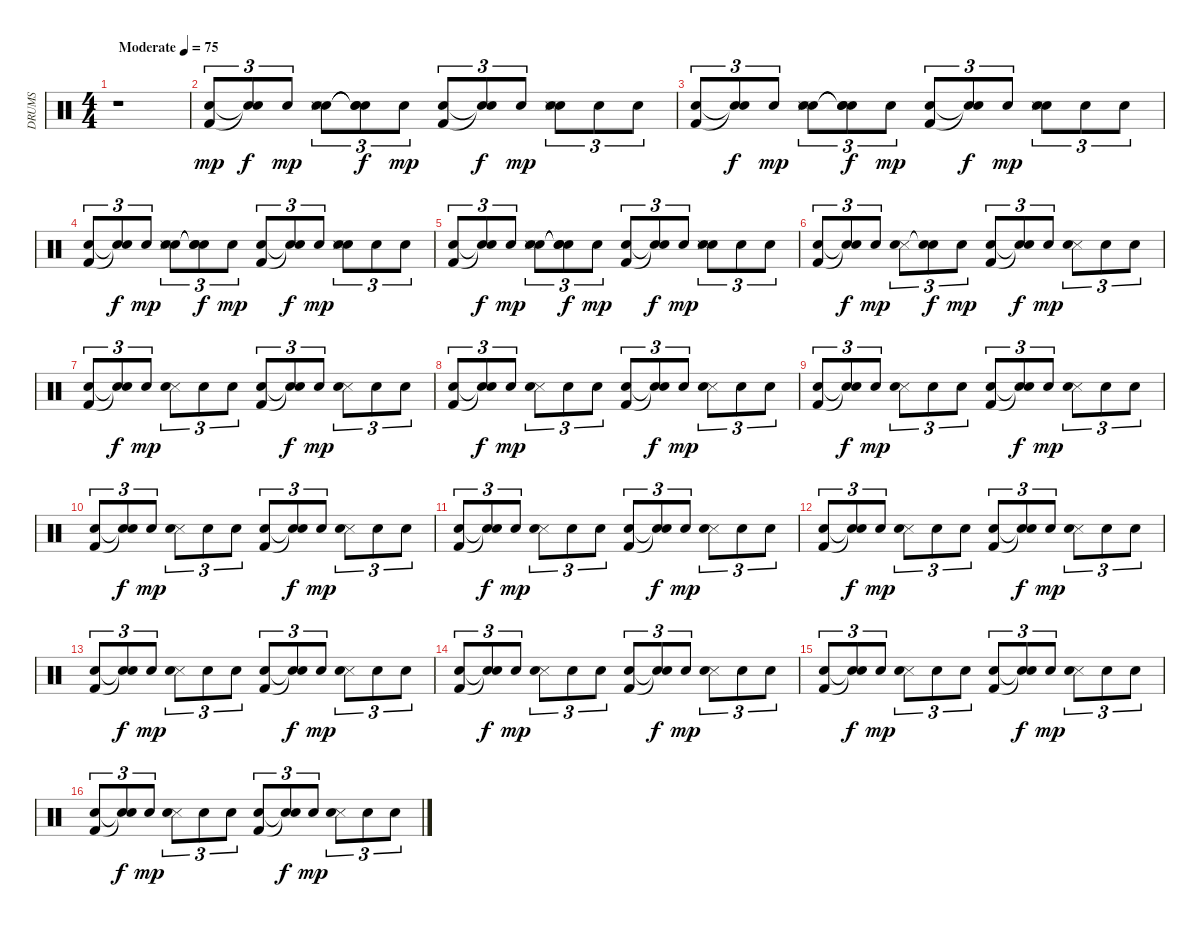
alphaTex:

\track ("DRUMS" "DRUMS") {instrument percussion}
\staff {score}
\articulation defaults
\ts (4 4)
\tempo (75 "Moderate")
\clef neutral
\ks c
r.1{dy mp} |
("Snare (hit) 2" "Kick (hit) 2").8{tu (3 2)} ("Snare (hit)"{t} "Snare (hit)"{t}).8{tu (3 2) dy f} "Snare (hit) 2".8{tu (3 2) dy mp} ("Snare (hit) 2" "Snare (side stick) 3" "Hand Clap (hit)").8{tu (3 2)} ("Snare (hit)"{t} "Snare (hit)"{t} "Snare (hit)"{t}).8{tu (3 2) dy f} "Snare (hit) 2".8{tu (3 2) dy mp} ("Snare (hit) 2" "Kick (hit) 2").8{tu (3 2)} ("Snare (hit)"{t} "Snare (hit)"{t}).8{tu (3 2) dy f} "Snare (hit) 2".8{tu (3 2) dy mp} ("Snare (hit) 2" "Snare (side stick) 3" "Hand Clap (hit)").8{tu (3 2)} "Snare (hit) 2".8{tu (3 2)} "Snare (hit) 2".8{tu (3 2)} |
("Snare (hit) 2" "Kick (hit) 2").8{tu (3 2)} ("Snare (hit)"{t} "Snare (hit)"{t}).8{tu (3 2) dy f} "Snare (hit) 2".8{tu (3 2) dy mp} ("Snare (hit) 2" "Snare (side stick) 3" "Hand Clap (hit)").8{tu (3 2)} ("Snare (hit)"{t} "Snare (hit)"{t} "Snare (hit)"{t}).8{tu (3 2) dy f} "Snare (hit) 2".8{tu (3 2) dy mp} ("Snare (hit) 2" "Kick (hit) 2").8{tu (3 2)} ("Snare (hit)"{t} "Snare (hit)"{t}).8{tu (3 2) dy f} "Snare (hit) 2".8{tu (3 2) dy mp} ("Snare (hit) 2" "Snare (side stick) 3" "Hand Clap (hit)").8{tu (3 2)} "Snare (hit) 2".8{tu (3 2)} "Snare (hit) 2".8{tu (3 2)} |
("Snare (hit) 2" "Kick (hit) 2").8{tu (3 2)} ("Snare (hit)"{t} "Snare (hit)"{t}).8{tu (3 2) dy f} "Snare (hit) 2".8{tu (3 2) dy mp} ("Snare (hit) 2" "Snare (side stick) 3" "Hand Clap (hit)").8{tu (3 2)} ("Snare (hit)"{t} "Snare (hit)"{t} "Snare (hit)"{t}).8{tu (3 2) dy f} "Snare (hit) 2".8{tu (3 2) dy mp} ("Snare (hit) 2" "Kick (hit) 2").8{tu (3 2)} ("Snare (hit)"{t} "Snare (hit)"{t}).8{tu (3 2) dy f} "Snare (hit) 2".8{tu (3 2) dy mp} ("Snare (hit) 2" "Snare (side stick) 3" "Hand Clap (hit)").8{tu (3 2)} "Snare (hit) 2".8{tu (3 2)} "Snare (hit) 2".8{tu (3 2)} |
("Snare (hit) 2" "Kick (hit) 2").8{tu (3 2)} ("Snare (hit)"{t} "Snare (hit)"{t}).8{tu (3 2) dy f} "Snare (hit) 2".8{tu (3 2) dy mp} ("Snare (hit) 2" "Snare (side stick) 3" "Hand Clap (hit)").8{tu (3 2)} ("Snare (hit)"{t} "Snare (hit)"{t} "Snare (hit)"{t}).8{tu (3 2) dy f} "Snare (hit) 2".8{tu (3 2) dy mp} ("Snare (hit) 2" "Kick (hit) 2").8{tu (3 2)} ("Snare (hit)"{t} "Snare (hit)"{t}).8{tu (3 2) dy f} "Snare (hit) 2".8{tu (3 2) dy mp} ("Snare (hit) 2" "Snare (side stick) 3" "Hand Clap (hit)").8{tu (3 2)} "Snare (hit) 2".8{tu (3 2)} "Snare (hit) 2".8{tu (3 2)} |
("Snare (hit) 2" "Kick (hit) 2").8{tu (3 2)} ("Snare (hit)"{t} "Snare (hit)"{t}).8{tu (3 2) dy f} "Snare (hit) 2".8{tu (3 2) dy mp} ("Snare (side stick) 3" "Hand Clap (hit)").8{tu (3 2)} ("Snare (hit)"{t} "Snare (hit)"{t}).8{tu (3 2) dy f} "Snare (hit) 2".8{tu (3 2) dy mp} ("Snare (hit) 2" "Kick (hit) 2").8{tu (3 2)} ("Snare (hit)"{t} "Snare (hit)"{t}).8{tu (3 2) dy f} "Snare (hit) 2".8{tu (3 2) dy mp} ("Snare (side stick) 3" "Hand Clap (hit)").8{tu (3 2)} "Snare (hit) 2".8{tu (3 2)} "Snare (hit) 2".8{tu (3 2)} |
("Snare (hit) 2" "Kick (hit) 2").8{tu (3 2)} ("Snare (hit)"{t} "Snare (hit)"{t}).8{tu (3 2) dy f} "Snare (hit) 2".8{tu (3 2) dy mp} ("Snare (side stick) 3" "Hand Clap (hit)").8{tu (3 2)} "Snare (hit) 2".8{tu (3 2)} "Snare (hit) 2".8{tu (3 2)} ("Snare (hit) 2" "Kick (hit) 2").8{tu (3 2)} ("Snare (hit)"{t} "Snare (hit)"{t}).8{tu (3 2) dy f} "Snare (hit) 2".8{tu (3 2) dy mp} ("Snare (side stick) 3" "Hand Clap (hit)").8{tu (3 2)} "Snare (hit) 2".8{tu (3 2)} "Snare (hit) 2".8{tu (3 2)} |
("Snare (hit) 2" "Kick (hit) 2").8{tu (3 2)} ("Snare (hit)"{t} "Snare (hit)"{t}).8{tu (3 2) dy f} "Snare (hit) 2".8{tu (3 2) dy mp} ("Snare (side stick) 3" "Hand Clap (hit)").8{tu (3 2)} "Snare (hit) 2".8{tu (3 2)} "Snare (hit) 2".8{tu (3 2)} ("Snare (hit) 2" "Kick (hit) 2").8{tu (3 2)} ("Snare (hit)"{t} "Snare (hit)"{t}).8{tu (3 2) dy f} "Snare (hit) 2".8{tu (3 2) dy mp} ("Snare (side stick) 3" "Hand Clap (hit)").8{tu (3 2)} "Snare (hit) 2".8{tu (3 2)} "Snare (hit) 2".8{tu (3 2)} |
("Snare (hit) 2" "Kick (hit) 2").8{tu (3 2)} ("Snare (hit)"{t} "Snare (hit)"{t}).8{tu (3 2) dy f} "Snare (hit) 2".8{tu (3 2) dy mp} ("Snare (side stick) 3" "Hand Clap (hit)").8{tu (3 2)} "Snare (hit) 2".8{tu (3 2)} "Snare (hit) 2".8{tu (3 2)} ("Snare (hit) 2" "Kick (hit) 2").8{tu (3 2)} ("Snare (hit)"{t} "Snare (hit)"{t}).8{tu (3 2) dy f} "Snare (hit) 2".8{tu (3 2) dy mp} ("Snare (side stick) 3" "Hand Clap (hit)").8{tu (3 2)} "Snare (hit) 2".8{tu (3 2)} "Snare (hit) 2".8{tu (3 2)} |
("Snare (hit) 2" "Kick (hit) 2").8{tu (3 2)} ("Snare (hit)"{t} "Snare (hit)"{t}).8{tu (3 2) dy f} "Snare (hit) 2".8{tu (3 2) dy mp} ("Snare (side stick) 3" "Hand Clap (hit)").8{tu (3 2)} "Snare (hit) 2".8{tu (3 2)} "Snare (hit) 2".8{tu (3 2)} ("Snare (hit) 2" "Kick (hit) 2").8{tu (3 2)} ("Snare (hit)"{t} "Snare (hit)"{t}).8{tu (3 2) dy f} "Snare (hit) 2".8{tu (3 2) dy mp} ("Snare (side stick) 3" "Hand Clap (hit)").8{tu (3 2)} "Snare (hit) 2".8{tu (3 2)} "Snare (hit) 2".8{tu (3 2)} |
("Snare (hit) 2" "Kick (hit) 2").8{tu (3 2)} ("Snare (hit)"{t} "Snare (hit)"{t}).8{tu (3 2) dy f} "Snare (hit) 2".8{tu (3 2) dy mp} ("Snare (side stick) 3" "Hand Clap (hit)").8{tu (3 2)} "Snare (hit) 2".8{tu (3 2)} "Snare (hit) 2".8{tu (3 2)} ("Snare (hit) 2" "Kick (hit) 2").8{tu (3 2)} ("Snare (hit)"{t} "Snare (hit)"{t}).8{tu (3 2) dy f} "Snare (hit) 2".8{tu (3 2) dy mp} ("Snare (side stick) 3" "Hand Clap (hit)").8{tu (3 2)} "Snare (hit) 2".8{tu (3 2)} "Snare (hit) 2".8{tu (3 2)} |
("Snare (hit) 2" "Kick (hit) 2").8{tu (3 2)} ("Snare (hit)"{t} "Snare (hit)"{t}).8{tu (3 2) dy f} "Snare (hit) 2".8{tu (3 2) dy mp} ("Snare (side stick) 3" "Hand Clap (hit)").8{tu (3 2)} "Snare (hit) 2".8{tu (3 2)} "Snare (hit) 2".8{tu (3 2)} ("Snare (hit) 2" "Kick (hit) 2").8{tu (3 2)} ("Snare (hit)"{t} "Snare (hit)"{t}).8{tu (3 2) dy f} "Snare (hit) 2".8{tu (3 2) dy mp} ("Snare (side stick) 3" "Hand Clap (hit)").8{tu (3 2)} "Snare (hit) 2".8{tu (3 2)} "Snare (hit) 2".8{tu (3 2)} |
("Snare (hit) 2" "Kick (hit) 2").8{tu (3 2)} ("Snare (hit)"{t} "Snare (hit)"{t}).8{tu (3 2) dy f} "Snare (hit) 2".8{tu (3 2) dy mp} ("Snare (side stick) 3" "Hand Clap (hit)").8{tu (3 2)} "Snare (hit) 2".8{tu (3 2)} "Snare (hit) 2".8{tu (3 2)} ("Snare (hit) 2" "Kick (hit) 2").8{tu (3 2)} ("Snare (hit)"{t} "Snare (hit)"{t}).8{tu (3 2) dy f} "Snare (hit) 2".8{tu (3 2) dy mp} ("Snare (side stick) 3" "Hand Clap (hit)").8{tu (3 2)} "Snare (hit) 2".8{tu (3 2)} "Snare (hit) 2".8{tu (3 2)} |
("Snare (hit) 2" "Kick (hit) 2").8{tu (3 2)} ("Snare (hit)"{t} "Snare (hit)"{t}).8{tu (3 2) dy f} "Snare (hit) 2".8{tu (3 2) dy mp} ("Snare (side stick) 3" "Hand Clap (hit)").8{tu (3 2)} "Snare (hit) 2".8{tu (3 2)} "Snare (hit) 2".8{tu (3 2)} ("Snare (hit) 2" "Kick (hit) 2").8{tu (3 2)} ("Snare (hit)"{t} "Snare (hit)"{t}).8{tu (3 2) dy f} "Snare (hit) 2".8{tu (3 2) dy mp} ("Snare (side stick) 3" "Hand Clap (hit)").8{tu (3 2)} "Snare (hit) 2".8{tu (3 2)} "Snare (hit) 2".8{tu (3 2)} |
("Snare (hit) 2" "Kick (hit) 2").8{tu (3 2)} ("Snare (hit)"{t} "Snare (hit)"{t}).8{tu (3 2) dy f} "Snare (hit) 2".8{tu (3 2) dy mp} ("Snare (side stick) 3" "Hand Clap (hit)").8{tu (3 2)} "Snare (hit) 2".8{tu (3 2)} "Snare (hit) 2".8{tu (3 2)} ("Snare (hit) 2" "Kick (hit) 2").8{tu (3 2)} ("Snare (hit)"{t} "Snare (hit)"{t}).8{tu (3 2) dy f} "Snare (hit) 2".8{tu (3 2) dy mp} ("Snare (side stick) 3" "Hand Clap (hit)").8{tu (3 2)} "Snare (hit) 2".8{tu (3 2)} "Snare (hit) 2".8{tu (3 2)} |
("Snare (hit) 2" "Kick (hit) 2").8{tu (3 2)} ("Snare (hit)"{t} "Snare (hit)"{t}).8{tu (3 2) dy f} "Snare (hit) 2".8{tu (3 2) dy mp} ("Snare (side stick) 3" "Hand Clap (hit)").8{tu (3 2)} "Snare (hit) 2".8{tu (3 2)} "Snare (hit) 2".8{tu (3 2)} ("Snare (hit) 2" "Kick (hit) 2").8{tu (3 2)} ("Snare (hit)"{t} "Snare (hit)"{t}).8{tu (3 2) dy f} "Snare (hit) 2".8{tu (3 2) dy mp} ("Snare (side stick) 3" "Hand Clap (hit)").8{tu (3 2)} "Snare (hit) 2".8{tu (3 2)} "Snare (hit) 2".8{tu (3 2)}
